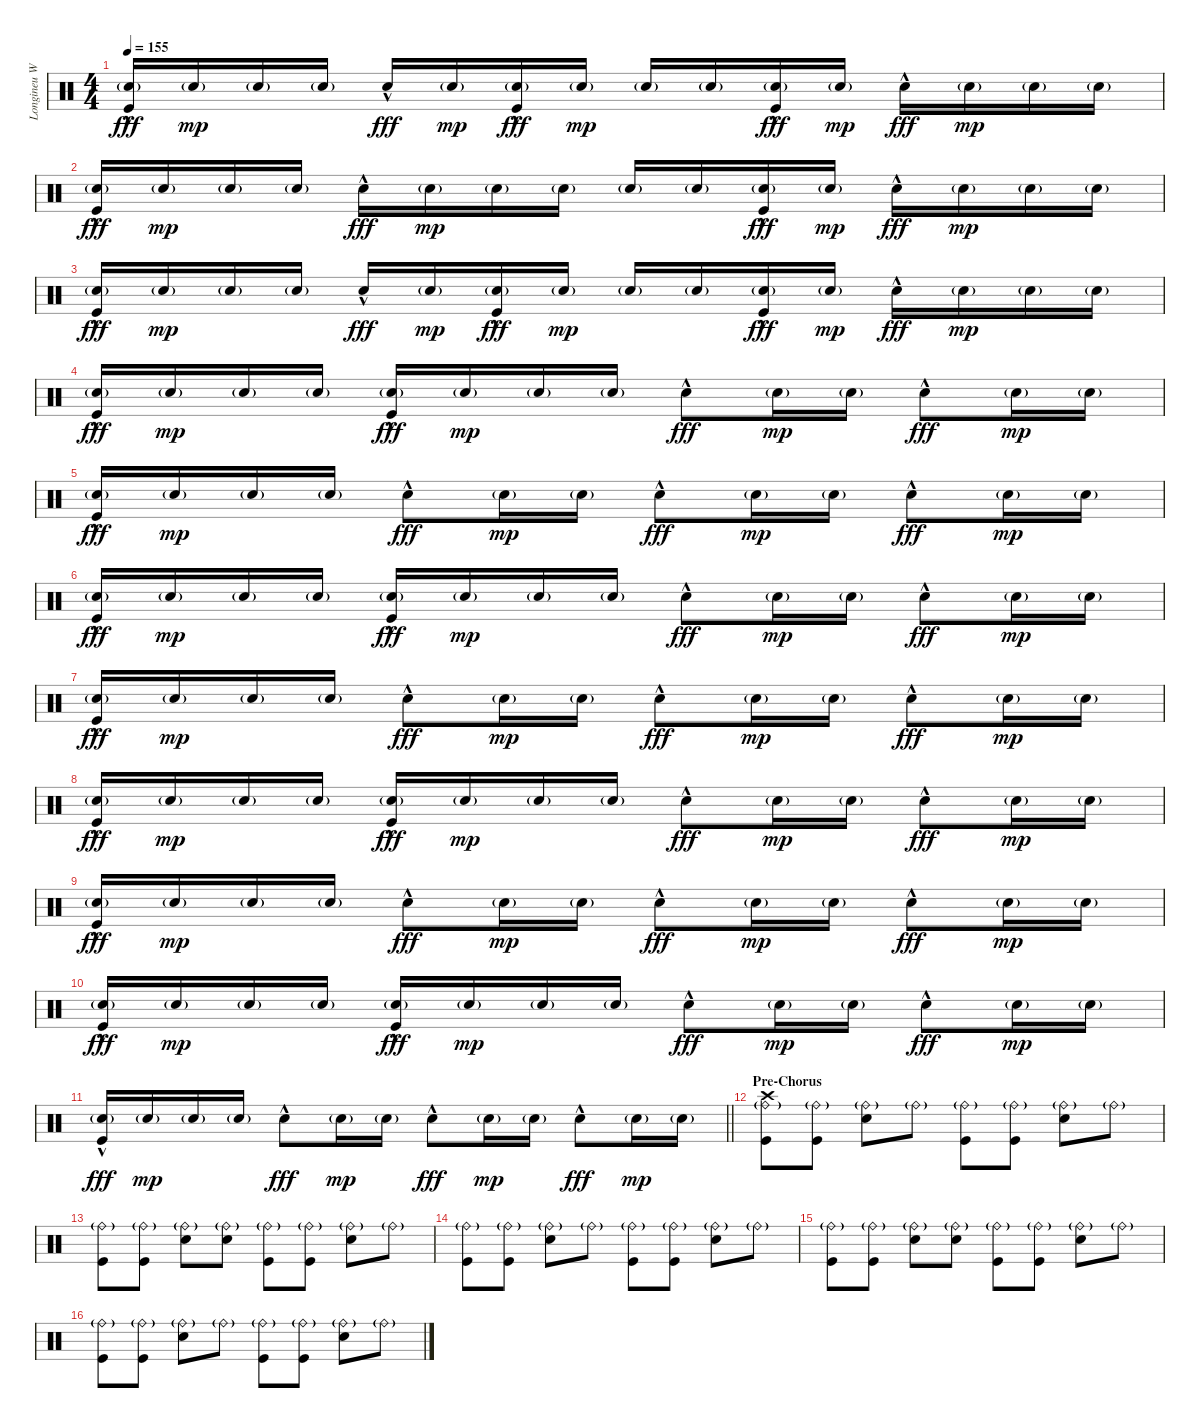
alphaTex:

\track ("Longineu W. Parsons III - Drums" "Longineu W") {instrument percussion}
\staff {score}
\articulation defaults
\ts (4 4)
\tempo 155
\clef neutral
\ks c
("Snare (hit) 2"{g} "Kick (hit)"{hac}).16{dy fff} "Snare (hit) 2"{g}.16{dy mp} "Snare (hit) 2"{g}.16 "Snare (hit) 2"{g}.16 "Snare (hit) 2"{hac}.16{dy fff} "Snare (hit) 2"{g}.16{dy mp} ("Snare (hit) 2"{g} "Kick (hit)"{hac}).16{dy fff} "Snare (hit) 2"{g}.16{dy mp} "Snare (hit) 2"{g}.16 "Snare (hit) 2"{g}.16 ("Snare (hit) 2"{g} "Kick (hit)"{hac}).16{dy fff} "Snare (hit) 2"{g}.16{dy mp} "Snare (hit) 2"{hac}.16{dy fff} "Snare (hit) 2"{g}.16{dy mp} "Snare (hit) 2"{g}.16 "Snare (hit) 2"{g}.16 |
("Snare (hit) 2"{g} "Kick (hit)"{hac}).16{dy fff} "Snare (hit) 2"{g}.16{dy mp} "Snare (hit) 2"{g}.16 "Snare (hit) 2"{g}.16 "Snare (hit) 2"{hac}.16{dy fff} "Snare (hit) 2"{g}.16{dy mp} "Snare (hit) 2"{g}.16 "Snare (hit) 2"{g}.16 "Snare (hit) 2"{g}.16 "Snare (hit) 2"{g}.16 ("Snare (hit) 2"{g} "Kick (hit)"{hac}).16{dy fff} "Snare (hit) 2"{g}.16{dy mp} "Snare (hit) 2"{hac}.16{dy fff} "Snare (hit) 2"{g}.16{dy mp} "Snare (hit) 2"{g}.16 "Snare (hit) 2"{g}.16 |
("Snare (hit) 2"{g} "Kick (hit)"{hac}).16{dy fff} "Snare (hit) 2"{g}.16{dy mp} "Snare (hit) 2"{g}.16 "Snare (hit) 2"{g}.16 "Snare (hit) 2"{hac}.16{dy fff} "Snare (hit) 2"{g}.16{dy mp} ("Snare (hit) 2"{g} "Kick (hit)"{hac}).16{dy fff} "Snare (hit) 2"{g}.16{dy mp} "Snare (hit) 2"{g}.16 "Snare (hit) 2"{g}.16 ("Snare (hit) 2"{g} "Kick (hit)"{hac}).16{dy fff} "Snare (hit) 2"{g}.16{dy mp} "Snare (hit) 2"{hac}.16{dy fff} "Snare (hit) 2"{g}.16{dy mp} "Snare (hit) 2"{g}.16 "Snare (hit) 2"{g}.16 |
("Snare (hit) 2"{g} "Kick (hit)"{hac}).16{dy fff} "Snare (hit) 2"{g}.16{dy mp} "Snare (hit) 2"{g}.16 "Snare (hit) 2"{g}.16 ("Snare (hit) 2"{g} "Kick (hit)"{hac}).16{dy fff} "Snare (hit) 2"{g}.16{dy mp} "Snare (hit) 2"{g}.16 "Snare (hit) 2"{g}.16 "Snare (hit) 2"{hac}.8{dy fff} "Snare (hit) 2"{g}.16{dy mp} "Snare (hit) 2"{g}.16 "Snare (hit) 2"{hac}.8{dy fff} "Snare (hit) 2"{g}.16{dy mp} "Snare (hit) 2"{g}.16 |
("Snare (hit) 2"{g} "Kick (hit)"{hac}).16{dy fff} "Snare (hit) 2"{g}.16{dy mp} "Snare (hit) 2"{g}.16 "Snare (hit) 2"{g}.16 "Snare (hit) 2"{hac}.8{dy fff} "Snare (hit) 2"{g}.16{dy mp} "Snare (hit) 2"{g}.16 "Snare (hit) 2"{hac}.8{dy fff} "Snare (hit) 2"{g}.16{dy mp} "Snare (hit) 2"{g}.16 "Snare (hit) 2"{hac}.8{dy fff} "Snare (hit) 2"{g}.16{dy mp} "Snare (hit) 2"{g}.16 |
("Snare (hit) 2"{g} "Kick (hit)"{hac}).16{dy fff} "Snare (hit) 2"{g}.16{dy mp} "Snare (hit) 2"{g}.16 "Snare (hit) 2"{g}.16 ("Snare (hit) 2"{g} "Kick (hit)"{hac}).16{dy fff} "Snare (hit) 2"{g}.16{dy mp} "Snare (hit) 2"{g}.16 "Snare (hit) 2"{g}.16 "Snare (hit) 2"{hac}.8{dy fff} "Snare (hit) 2"{g}.16{dy mp} "Snare (hit) 2"{g}.16 "Snare (hit) 2"{hac}.8{dy fff} "Snare (hit) 2"{g}.16{dy mp} "Snare (hit) 2"{g}.16 |
("Snare (hit) 2"{g} "Kick (hit)"{hac}).16{dy fff} "Snare (hit) 2"{g}.16{dy mp} "Snare (hit) 2"{g}.16 "Snare (hit) 2"{g}.16 "Snare (hit) 2"{hac}.8{dy fff} "Snare (hit) 2"{g}.16{dy mp} "Snare (hit) 2"{g}.16 "Snare (hit) 2"{hac}.8{dy fff} "Snare (hit) 2"{g}.16{dy mp} "Snare (hit) 2"{g}.16 "Snare (hit) 2"{hac}.8{dy fff} "Snare (hit) 2"{g}.16{dy mp} "Snare (hit) 2"{g}.16 |
("Snare (hit) 2"{g} "Kick (hit)"{hac}).16{dy fff} "Snare (hit) 2"{g}.16{dy mp} "Snare (hit) 2"{g}.16 "Snare (hit) 2"{g}.16 ("Snare (hit) 2"{g} "Kick (hit)"{hac}).16{dy fff} "Snare (hit) 2"{g}.16{dy mp} "Snare (hit) 2"{g}.16 "Snare (hit) 2"{g}.16 "Snare (hit) 2"{hac}.8{dy fff} "Snare (hit) 2"{g}.16{dy mp} "Snare (hit) 2"{g}.16 "Snare (hit) 2"{hac}.8{dy fff} "Snare (hit) 2"{g}.16{dy mp} "Snare (hit) 2"{g}.16 |
("Snare (hit) 2"{g} "Kick (hit)"{hac}).16{dy fff} "Snare (hit) 2"{g}.16{dy mp} "Snare (hit) 2"{g}.16 "Snare (hit) 2"{g}.16 "Snare (hit) 2"{hac}.8{dy fff} "Snare (hit) 2"{g}.16{dy mp} "Snare (hit) 2"{g}.16 "Snare (hit) 2"{hac}.8{dy fff} "Snare (hit) 2"{g}.16{dy mp} "Snare (hit) 2"{g}.16 "Snare (hit) 2"{hac}.8{dy fff} "Snare (hit) 2"{g}.16{dy mp} "Snare (hit) 2"{g}.16 |
("Snare (hit) 2"{g} "Kick (hit)"{hac}).16{dy fff} "Snare (hit) 2"{g}.16{dy mp} "Snare (hit) 2"{g}.16 "Snare (hit) 2"{g}.16 ("Snare (hit) 2"{g} "Kick (hit)"{hac}).16{dy fff} "Snare (hit) 2"{g}.16{dy mp} "Snare (hit) 2"{g}.16 "Snare (hit) 2"{g}.16 "Snare (hit) 2"{hac}.8{dy fff} "Snare (hit) 2"{g}.16{dy mp} "Snare (hit) 2"{g}.16 "Snare (hit) 2"{hac}.8{dy fff} "Snare (hit) 2"{g}.16{dy mp} "Snare (hit) 2"{g}.16 |
\barLineRight lightlight
("Snare (hit) 2"{g} "Kick (hit)"{hac}).16{dy fff} "Snare (hit) 2"{g}.16{dy mp} "Snare (hit) 2"{g}.16 "Snare (hit) 2"{g}.16 "Snare (hit) 2"{hac}.8{dy fff} "Snare (hit) 2"{g}.16{dy mp} "Snare (hit) 2"{g}.16 "Snare (hit) 2"{hac}.8{dy fff} "Snare (hit) 2"{g}.16{dy mp} "Snare (hit) 2"{g}.16 "Snare (hit) 2"{hac}.8{dy fff} "Snare (hit) 2"{g}.16{dy mp} "Snare (hit) 2"{g}.16 |
\section ("" "Pre-Chorus")
("Crash high (hit)" "Ride (bell)"{g} "Kick (hit)").8 ("Ride (bell)"{g} "Kick (hit)").8 ("Ride (bell)"{g} "Snare (hit) 2").8 "Ride (bell)"{g}.8 ("Ride (bell)"{g} "Kick (hit)").8 ("Ride (bell)"{g} "Kick (hit)").8 ("Ride (bell)"{g} "Snare (hit) 2").8 "Ride (bell)"{g}.8 |
("Ride (bell)"{g} "Kick (hit)").8 ("Ride (bell)"{g} "Kick (hit)").8 ("Ride (bell)"{g} "Snare (hit) 2").8 ("Ride (bell)"{g} "Snare (hit) 2").8 ("Ride (bell)"{g} "Kick (hit)").8 ("Ride (bell)"{g} "Kick (hit)").8 ("Ride (bell)"{g} "Snare (hit) 2").8 "Ride (bell)"{g}.8 |
("Ride (bell)"{g} "Kick (hit)").8 ("Ride (bell)"{g} "Kick (hit)").8 ("Ride (bell)"{g} "Snare (hit) 2").8 "Ride (bell)"{g}.8 ("Ride (bell)"{g} "Kick (hit)").8 ("Ride (bell)"{g} "Kick (hit)").8 ("Ride (bell)"{g} "Snare (hit) 2").8 "Ride (bell)"{g}.8 |
("Ride (bell)"{g} "Kick (hit)").8 ("Ride (bell)"{g} "Kick (hit)").8 ("Ride (bell)"{g} "Snare (hit) 2").8 ("Ride (bell)"{g} "Snare (hit) 2").8 ("Ride (bell)"{g} "Kick (hit)").8 ("Ride (bell)"{g} "Kick (hit)").8 ("Ride (bell)"{g} "Snare (hit) 2").8 "Ride (bell)"{g}.8 |
("Ride (bell)"{g} "Kick (hit)").8 ("Ride (bell)"{g} "Kick (hit)").8 ("Ride (bell)"{g} "Snare (hit) 2").8 "Ride (bell)"{g}.8 ("Ride (bell)"{g} "Kick (hit)").8 ("Ride (bell)"{g} "Kick (hit)").8 ("Ride (bell)"{g} "Snare (hit) 2").8 "Ride (bell)"{g}.8
